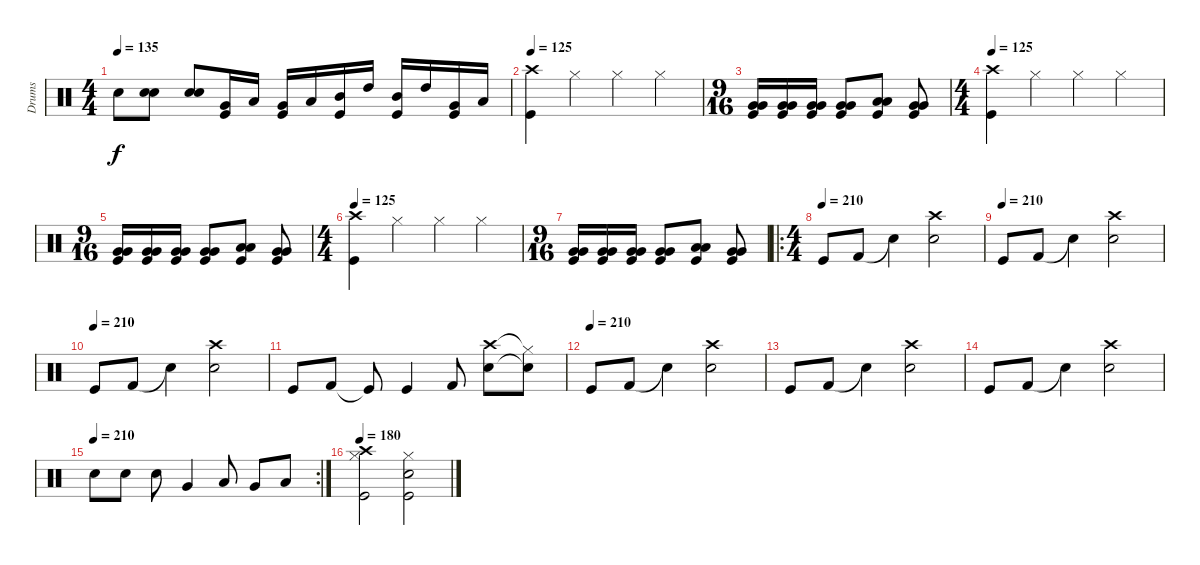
\track ("Drums" "Drums") {instrument percussion}
\staff {score}
\articulation defaults
\ts (4 4)
\tempo 135
\clef neutral
\ks c "Snare (hit) 2".8{dy f}
("Snare (hit) 2" "Snare (hit) 2").8 ("Snare (hit) 2" "Snare (hit) 2").8 ("Very Low Tom (hit)" "Kick (hit)").16 "Low Tom (hit)".16 ("Very Low Tom (hit)" "Kick (hit)").16 "Low Tom (hit)".16 ("Mid Tom (hit)" "Kick (hit)").16 "High Tom (hit)".16 ("Mid Tom (hit)" "Kick (hit)").16 "High Tom (hit)".16 ("Very Low Tom (hit)" "Kick (hit)").16 "Low Tom (hit)".16 |
\tempo 125
("Crash high (hit)" "Kick (hit)").4 "Hi-Hat (closed)".4 "Hi-Hat (closed)".4 "Hi-Hat (closed)".4 |
\ts (9 16)
("Very Low Tom (hit)" "Very Low Tom (hit)" "Kick (hit)").16 ("Very Low Tom (hit)" "Very Low Tom (hit)" "Kick (hit)").16 ("Very Low Tom (hit)" "Very Low Tom (hit)" "Kick (hit)").16 ("Very Low Tom (hit)" "Very Low Tom (hit)" "Kick (hit)").8 ("Low Tom (hit)" "Low Tom (hit)" "Kick (hit)").8 ("Very Low Tom (hit)" "Very Low Tom (hit)" "Kick (hit)").8 |
\ts (4 4)
\tempo 125
("Crash high (hit)" "Kick (hit)").4 "Hi-Hat (closed)".4 "Hi-Hat (closed)".4 "Hi-Hat (closed)".4 |
\ts (9 16)
("Very Low Tom (hit)" "Very Low Tom (hit)" "Kick (hit)").16 ("Very Low Tom (hit)" "Very Low Tom (hit)" "Kick (hit)").16 ("Very Low Tom (hit)" "Very Low Tom (hit)" "Kick (hit)").16 ("Very Low Tom (hit)" "Very Low Tom (hit)" "Kick (hit)").8 ("Low Tom (hit)" "Low Tom (hit)" "Kick (hit)").8 ("Very Low Tom (hit)" "Very Low Tom (hit)" "Kick (hit)").8 |
\ts (4 4)
\tempo 125
("Crash high (hit)" "Kick (hit)").4 "Hi-Hat (closed)".4 "Hi-Hat (closed)".4 "Hi-Hat (closed)".4 |
\ts (9 16)
("Very Low Tom (hit)" "Very Low Tom (hit)" "Kick (hit)").16 ("Very Low Tom (hit)" "Very Low Tom (hit)" "Kick (hit)").16 ("Very Low Tom (hit)" "Very Low Tom (hit)" "Kick (hit)").16 ("Very Low Tom (hit)" "Very Low Tom (hit)" "Kick (hit)").8 ("Low Tom (hit)" "Low Tom (hit)" "Kick (hit)").8 ("Very Low Tom (hit)" "Very Low Tom (hit)" "Kick (hit)").8 |
\ro
\ts (4 4)
\tempo (210)
"Kick (hit)".8 "Kick (hit) 2".8 "Snare (hit) 2"{t}.4 ("Crash high (hit)" "Snare (hit) 2").2 |
\tempo (210)
"Kick (hit)".8 "Kick (hit) 2".8 "Snare (hit) 2"{t}.4 ("Crash high (hit)" "Snare (hit) 2").2 |
\tempo (210)
"Kick (hit)".8 "Kick (hit) 2".8 "Snare (hit) 2"{t}.4 ("Crash high (hit)" "Snare (hit) 2").2 |
"Kick (hit)".8 "Kick (hit) 2".8 "Kick (hit)"{t}.8 "Kick (hit)".4 "Kick (hit) 2".8 ("Crash high (hit)" "Snare (hit) 2").8 ("Hi-Hat (closed)"{t} "Snare (hit) 2"{t}).8 |
\tempo (210)
"Kick (hit)".8 "Kick (hit) 2".8 "Snare (hit) 2"{t}.4 ("Crash high (hit)" "Snare (hit) 2").2 |
"Kick (hit)".8 "Kick (hit) 2".8 "Snare (hit) 2"{t}.4 ("Crash high (hit)" "Snare (hit) 2").2 |
"Kick (hit)".8 "Kick (hit) 2".8 "Snare (hit) 2"{t}.4 ("Crash high (hit)" "Snare (hit) 2").2 |
\rc 2
\tempo (210)
"Snare (hit) 2".8 "Snare (hit) 2".8 "Snare (hit) 2".8 "Very Low Tom (hit)".4 "Low Tom (hit)".8 "Very Low Tom (hit)".8 "Low Tom (hit)".8 |
\tempo 180
("Crash high (hit)" "Kick (hit)" "Hi-Hat (closed)").2 ("Snare (hit) 2" "Kick (hit)" "Hi-Hat (closed)").2
